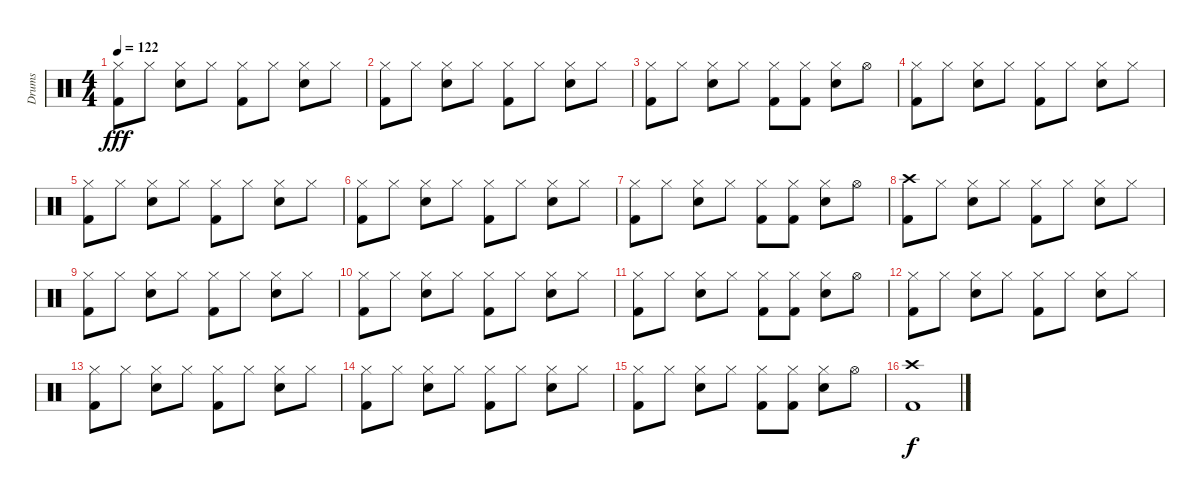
\track ("Drums" "Drums") {instrument percussion}
\staff {score}
\articulation defaults
\ts (4 4)
\tempo 122
\clef neutral
\ks c
("Hi-Hat (closed)" "Kick (hit) 2").8{dy fff} "Hi-Hat (closed)".8 ("Hi-Hat (closed)" "Snare (hit) 2").8 "Hi-Hat (closed)".8 ("Hi-Hat (closed)" "Kick (hit) 2").8 "Hi-Hat (closed)".8 ("Hi-Hat (closed)" "Snare (hit) 2").8 "Hi-Hat (closed)".8 |
("Hi-Hat (closed)" "Kick (hit) 2").8 "Hi-Hat (closed)".8 ("Hi-Hat (closed)" "Snare (hit) 2").8 "Hi-Hat (closed)".8 ("Hi-Hat (closed)" "Kick (hit) 2").8 "Hi-Hat (closed)".8 ("Hi-Hat (closed)" "Snare (hit) 2").8 "Hi-Hat (closed)".8 |
("Hi-Hat (closed)" "Kick (hit) 2").8 "Hi-Hat (closed)".8 ("Hi-Hat (closed)" "Snare (hit) 2").8 "Hi-Hat (closed)".8 ("Hi-Hat (closed)" "Kick (hit) 2").8 ("Hi-Hat (closed)" "Kick (hit) 2").8 ("Hi-Hat (closed)" "Snare (hit) 2").8 "Hi-Hat (open)".8 |
("Hi-Hat (closed)" "Kick (hit) 2").8 "Hi-Hat (closed)".8 ("Hi-Hat (closed)" "Snare (hit) 2").8 "Hi-Hat (closed)".8 ("Hi-Hat (closed)" "Kick (hit) 2").8 "Hi-Hat (closed)".8 ("Hi-Hat (closed)" "Snare (hit) 2").8 "Hi-Hat (closed)".8 |
("Hi-Hat (closed)" "Kick (hit) 2").8 "Hi-Hat (closed)".8 ("Hi-Hat (closed)" "Snare (hit) 2").8 "Hi-Hat (closed)".8 ("Hi-Hat (closed)" "Kick (hit) 2").8 "Hi-Hat (closed)".8 ("Hi-Hat (closed)" "Snare (hit) 2").8 "Hi-Hat (closed)".8 |
("Hi-Hat (closed)" "Kick (hit) 2").8 "Hi-Hat (closed)".8 ("Hi-Hat (closed)" "Snare (hit) 2").8 "Hi-Hat (closed)".8 ("Hi-Hat (closed)" "Kick (hit) 2").8 "Hi-Hat (closed)".8 ("Hi-Hat (closed)" "Snare (hit) 2").8 "Hi-Hat (closed)".8 |
("Hi-Hat (closed)" "Kick (hit) 2").8 "Hi-Hat (closed)".8 ("Hi-Hat (closed)" "Snare (hit) 2").8 "Hi-Hat (closed)".8 ("Hi-Hat (closed)" "Kick (hit) 2").8 ("Hi-Hat (closed)" "Kick (hit) 2").8 ("Hi-Hat (closed)" "Snare (hit) 2").8 "Hi-Hat (open)".8 |
("Crash high (hit)" "Kick (hit) 2").8 "Hi-Hat (closed)".8 ("Hi-Hat (closed)" "Snare (hit) 2").8 "Hi-Hat (closed)".8 ("Hi-Hat (closed)" "Kick (hit) 2").8 "Hi-Hat (closed)".8 ("Hi-Hat (closed)" "Snare (hit) 2").8 "Hi-Hat (closed)".8 |
("Hi-Hat (closed)" "Kick (hit) 2").8 "Hi-Hat (closed)".8 ("Hi-Hat (closed)" "Snare (hit) 2").8 "Hi-Hat (closed)".8 ("Hi-Hat (closed)" "Kick (hit) 2").8 "Hi-Hat (closed)".8 ("Hi-Hat (closed)" "Snare (hit) 2").8 "Hi-Hat (closed)".8 |
("Hi-Hat (closed)" "Kick (hit) 2").8 "Hi-Hat (closed)".8 ("Hi-Hat (closed)" "Snare (hit) 2").8 "Hi-Hat (closed)".8 ("Hi-Hat (closed)" "Kick (hit) 2").8 "Hi-Hat (closed)".8 ("Hi-Hat (closed)" "Snare (hit) 2").8 "Hi-Hat (closed)".8 |
("Hi-Hat (closed)" "Kick (hit) 2").8 "Hi-Hat (closed)".8 ("Hi-Hat (closed)" "Snare (hit) 2").8 "Hi-Hat (closed)".8 ("Hi-Hat (closed)" "Kick (hit) 2").8 ("Hi-Hat (closed)" "Kick (hit) 2").8 ("Hi-Hat (closed)" "Snare (hit) 2").8 "Hi-Hat (open)".8 |
("Hi-Hat (closed)" "Kick (hit) 2").8 "Hi-Hat (closed)".8 ("Hi-Hat (closed)" "Snare (hit) 2").8 "Hi-Hat (closed)".8 ("Hi-Hat (closed)" "Kick (hit) 2").8 "Hi-Hat (closed)".8 ("Hi-Hat (closed)" "Snare (hit) 2").8 "Hi-Hat (closed)".8 |
("Hi-Hat (closed)" "Kick (hit) 2").8 "Hi-Hat (closed)".8 ("Hi-Hat (closed)" "Snare (hit) 2").8 "Hi-Hat (closed)".8 ("Hi-Hat (closed)" "Kick (hit) 2").8 "Hi-Hat (closed)".8 ("Hi-Hat (closed)" "Snare (hit) 2").8 "Hi-Hat (closed)".8 |
("Hi-Hat (closed)" "Kick (hit) 2").8 "Hi-Hat (closed)".8 ("Hi-Hat (closed)" "Snare (hit) 2").8 "Hi-Hat (closed)".8 ("Hi-Hat (closed)" "Kick (hit) 2").8 "Hi-Hat (closed)".8 ("Hi-Hat (closed)" "Snare (hit) 2").8 "Hi-Hat (closed)".8 |
("Hi-Hat (closed)" "Kick (hit) 2").8 "Hi-Hat (closed)".8 ("Hi-Hat (closed)" "Snare (hit) 2").8 "Hi-Hat (closed)".8 ("Hi-Hat (closed)" "Kick (hit) 2").8 ("Hi-Hat (closed)" "Kick (hit) 2").8 ("Hi-Hat (closed)" "Snare (hit) 2").8 "Hi-Hat (open)".8 |
("Crash high (hit)" "Kick (hit) 2").1{dy f}
